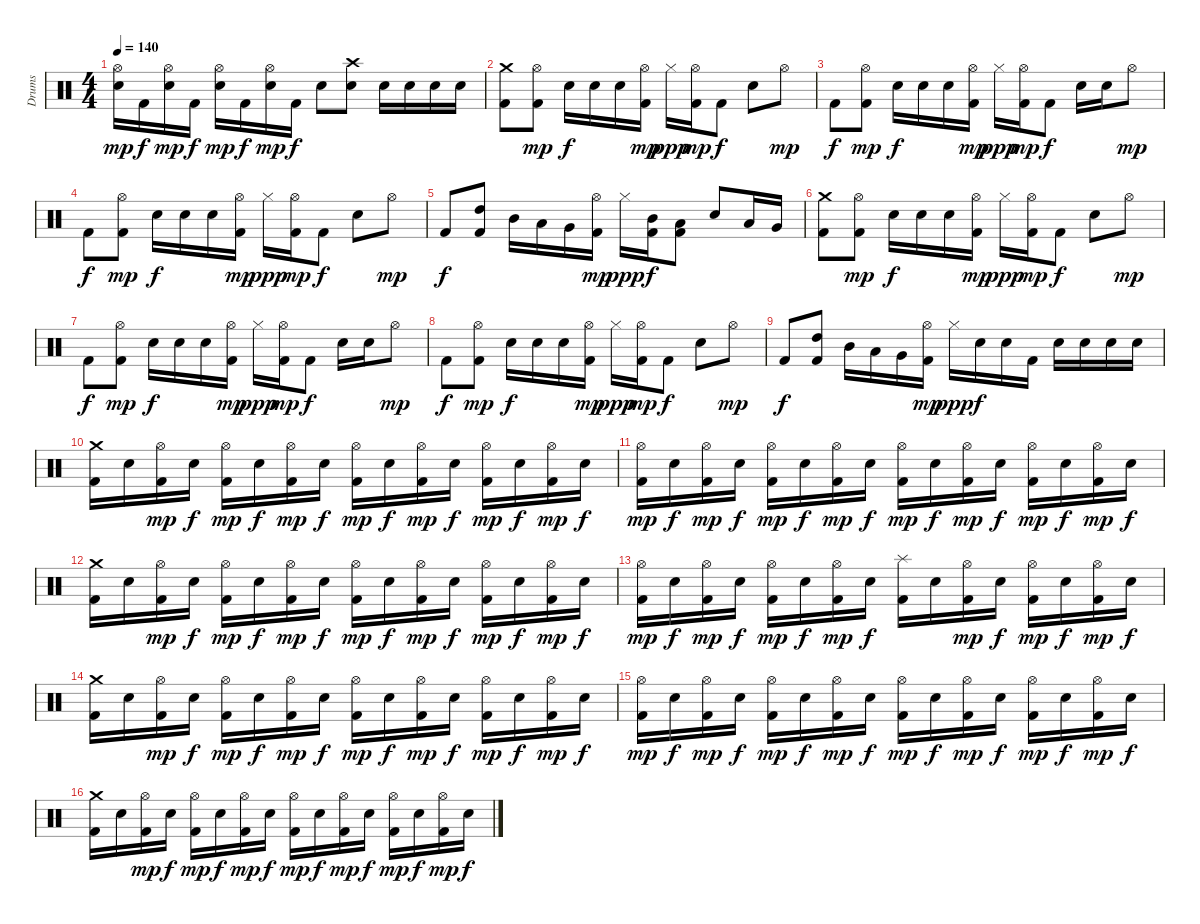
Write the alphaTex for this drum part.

\track ("Drums" "Drums") {instrument percussion}
\staff {score}
\articulation defaults
\ts (4 4)
\tempo 140
\clef neutral
\ks c
("Hi-Hat (open)" "Snare (hit) 2").16{dy mp} "Kick (hit) 2".16{dy f} ("Hi-Hat (open)" "Snare (hit) 2").16{dy mp} "Kick (hit) 2".16{dy f} ("Hi-Hat (open)" "Snare (hit) 2").16{dy mp} "Kick (hit) 2".16{dy f} ("Hi-Hat (open)" "Snare (hit) 2").16{dy mp} "Kick (hit) 2".16{dy f} "Snare (hit) 2".8 ("Crash high (hit)" "Snare (hit) 2").8 "Snare (hit) 2".16 "Snare (hit) 2".16 "Snare (hit) 2".16 "Snare (hit) 2".16 |
("Crash medium (hit)" "Kick (hit) 2").8 ("Hi-Hat (open)" "Kick (hit) 2").8{dy mp} "Snare (hit) 2".16{dy f} "Snare (hit) 2".16 "Snare (hit) 2".16 ("Hi-Hat (open)" "Kick (hit) 2").16{dy mp} "Hi-Hat (closed)".16{dy ppp} ("Hi-Hat (open)" "Kick (hit) 2").16{dy mp} "Kick (hit) 2".8{dy f} "Snare (hit) 2".8 "Hi-Hat (open)".8{dy mp} |
"Kick (hit) 2".8{dy f} ("Hi-Hat (open)" "Kick (hit) 2").8{dy mp} "Snare (hit) 2".16{dy f} "Snare (hit) 2".16 "Snare (hit) 2".16 ("Hi-Hat (open)" "Kick (hit) 2").16{dy mp} "Hi-Hat (closed)".16{dy ppp} ("Hi-Hat (open)" "Kick (hit) 2").16{dy mp} "Kick (hit) 2".8{dy f} "Snare (hit) 2".16 "Snare (hit) 2".16 "Hi-Hat (open)".8{dy mp} |
"Kick (hit) 2".8{dy f} ("Hi-Hat (open)" "Kick (hit) 2").8{dy mp} "Snare (hit) 2".16{dy f} "Snare (hit) 2".16 "Snare (hit) 2".16 ("Hi-Hat (open)" "Kick (hit) 2").16{dy mp} "Hi-Hat (closed)".16{dy ppp} ("Hi-Hat (open)" "Kick (hit) 2").16{dy mp} "Kick (hit) 2".8{dy f} "Snare (hit) 2".8 "Hi-Hat (open)".8{dy mp} |
"Kick (hit) 2".8{dy f} ("High Tom (hit)" "Kick (hit) 2").8 "Mid Tom (hit)".16 "Low Tom (hit)".16 "Very Low Tom (hit)".16 ("Hi-Hat (open)" "Kick (hit) 2").16{dy mp} "Hi-Hat (closed)".16{dy ppp} ("Mid Tom (hit)" "Kick (hit) 2").16{dy f} ("Low Tom (hit)" "Kick (hit) 2").8 "Snare (hit) 2".8 "Low Tom (hit)".16 "Very Low Tom (hit)".16 |
("Crash medium (hit)" "Kick (hit) 2").8 ("Hi-Hat (open)" "Kick (hit) 2").8{dy mp} "Snare (hit) 2".16{dy f} "Snare (hit) 2".16 "Snare (hit) 2".16 ("Hi-Hat (open)" "Kick (hit) 2").16{dy mp} "Hi-Hat (closed)".16{dy ppp} ("Hi-Hat (open)" "Kick (hit) 2").16{dy mp} "Kick (hit) 2".8{dy f} "Snare (hit) 2".8 "Hi-Hat (open)".8{dy mp} |
"Kick (hit) 2".8{dy f} ("Hi-Hat (open)" "Kick (hit) 2").8{dy mp} "Snare (hit) 2".16{dy f} "Snare (hit) 2".16 "Snare (hit) 2".16 ("Hi-Hat (open)" "Kick (hit) 2").16{dy mp} "Hi-Hat (closed)".16{dy ppp} ("Hi-Hat (open)" "Kick (hit) 2").16{dy mp} "Kick (hit) 2".8{dy f} "Snare (hit) 2".16 "Snare (hit) 2".16 "Hi-Hat (open)".8{dy mp} |
"Kick (hit) 2".8{dy f} ("Hi-Hat (open)" "Kick (hit) 2").8{dy mp} "Snare (hit) 2".16{dy f} "Snare (hit) 2".16 "Snare (hit) 2".16 ("Hi-Hat (open)" "Kick (hit) 2").16{dy mp} "Hi-Hat (closed)".16{dy ppp} ("Hi-Hat (open)" "Kick (hit) 2").16{dy mp} "Kick (hit) 2".8{dy f} "Snare (hit) 2".8 "Hi-Hat (open)".8{dy mp} |
"Kick (hit) 2".8{dy f} ("High Tom (hit)" "Kick (hit) 2").8 "Mid Tom (hit)".16 "Low Tom (hit)".16 "Very Low Tom (hit)".16 ("Hi-Hat (open)" "Kick (hit) 2").16{dy mp} "Hi-Hat (closed)".16{dy ppp} "Snare (hit) 2".16{dy f} "Snare (hit) 2".16 "Kick (hit) 2".16 "Snare (hit) 2".16 "Snare (hit) 2".16 "Snare (hit) 2".16 "Snare (hit) 2".16 |
("Crash medium (hit)" "Kick (hit) 2").16 "Snare (hit) 2".16 ("Hi-Hat (open)" "Kick (hit) 2").16{dy mp} "Snare (hit) 2".16{dy f} ("Hi-Hat (open)" "Kick (hit) 2").16{dy mp} "Snare (hit) 2".16{dy f} ("Hi-Hat (open)" "Kick (hit) 2").16{dy mp} "Snare (hit) 2".16{dy f} ("Hi-Hat (open)" "Kick (hit) 2").16{dy mp} "Snare (hit) 2".16{dy f} ("Hi-Hat (open)" "Kick (hit) 2").16{dy mp} "Snare (hit) 2".16{dy f} ("Hi-Hat (open)" "Kick (hit) 2").16{dy mp} "Snare (hit) 2".16{dy f} ("Hi-Hat (open)" "Kick (hit) 2").16{dy mp} "Snare (hit) 2".16{dy f} |
("Hi-Hat (open)" "Kick (hit) 2").16{dy mp} "Snare (hit) 2".16{dy f} ("Hi-Hat (open)" "Kick (hit) 2").16{dy mp} "Snare (hit) 2".16{dy f} ("Hi-Hat (open)" "Kick (hit) 2").16{dy mp} "Snare (hit) 2".16{dy f} ("Hi-Hat (open)" "Kick (hit) 2").16{dy mp} "Snare (hit) 2".16{dy f} ("Hi-Hat (open)" "Kick (hit) 2").16{dy mp} "Snare (hit) 2".16{dy f} ("Hi-Hat (open)" "Kick (hit) 2").16{dy mp} "Snare (hit) 2".16{dy f} ("Hi-Hat (open)" "Kick (hit) 2").16{dy mp} "Snare (hit) 2".16{dy f} ("Hi-Hat (open)" "Kick (hit) 2").16{dy mp} "Snare (hit) 2".16{dy f} |
("Crash medium (hit)" "Kick (hit) 2").16 "Snare (hit) 2".16 ("Hi-Hat (open)" "Kick (hit) 2").16{dy mp} "Snare (hit) 2".16{dy f} ("Hi-Hat (open)" "Kick (hit) 2").16{dy mp} "Snare (hit) 2".16{dy f} ("Hi-Hat (open)" "Kick (hit) 2").16{dy mp} "Snare (hit) 2".16{dy f} ("Hi-Hat (open)" "Kick (hit) 2").16{dy mp} "Snare (hit) 2".16{dy f} ("Hi-Hat (open)" "Kick (hit) 2").16{dy mp} "Snare (hit) 2".16{dy f} ("Hi-Hat (open)" "Kick (hit) 2").16{dy mp} "Snare (hit) 2".16{dy f} ("Hi-Hat (open)" "Kick (hit) 2").16{dy mp} "Snare (hit) 2".16{dy f} |
("Hi-Hat (open)" "Kick (hit) 2").16{dy mp} "Snare (hit) 2".16{dy f} ("Hi-Hat (open)" "Kick (hit) 2").16{dy mp} "Snare (hit) 2".16{dy f} ("Hi-Hat (open)" "Kick (hit) 2").16{dy mp} "Snare (hit) 2".16{dy f} ("Hi-Hat (open)" "Kick (hit) 2").16{dy mp} "Snare (hit) 2".16{dy f} ("Splash (hit)" "Kick (hit) 2").16 "Snare (hit) 2".16 ("Hi-Hat (open)" "Kick (hit) 2").16{dy mp} "Snare (hit) 2".16{dy f} ("Hi-Hat (open)" "Kick (hit) 2").16{dy mp} "Snare (hit) 2".16{dy f} ("Hi-Hat (open)" "Kick (hit) 2").16{dy mp} "Snare (hit) 2".16{dy f} |
("Crash medium (hit)" "Kick (hit) 2").16 "Snare (hit) 2".16 ("Hi-Hat (open)" "Kick (hit) 2").16{dy mp} "Snare (hit) 2".16{dy f} ("Hi-Hat (open)" "Kick (hit) 2").16{dy mp} "Snare (hit) 2".16{dy f} ("Hi-Hat (open)" "Kick (hit) 2").16{dy mp} "Snare (hit) 2".16{dy f} ("Hi-Hat (open)" "Kick (hit) 2").16{dy mp} "Snare (hit) 2".16{dy f} ("Hi-Hat (open)" "Kick (hit) 2").16{dy mp} "Snare (hit) 2".16{dy f} ("Hi-Hat (open)" "Kick (hit) 2").16{dy mp} "Snare (hit) 2".16{dy f} ("Hi-Hat (open)" "Kick (hit) 2").16{dy mp} "Snare (hit) 2".16{dy f} |
("Hi-Hat (open)" "Kick (hit) 2").16{dy mp} "Snare (hit) 2".16{dy f} ("Hi-Hat (open)" "Kick (hit) 2").16{dy mp} "Snare (hit) 2".16{dy f} ("Hi-Hat (open)" "Kick (hit) 2").16{dy mp} "Snare (hit) 2".16{dy f} ("Hi-Hat (open)" "Kick (hit) 2").16{dy mp} "Snare (hit) 2".16{dy f} ("Hi-Hat (open)" "Kick (hit) 2").16{dy mp} "Snare (hit) 2".16{dy f} ("Hi-Hat (open)" "Kick (hit) 2").16{dy mp} "Snare (hit) 2".16{dy f} ("Hi-Hat (open)" "Kick (hit) 2").16{dy mp} "Snare (hit) 2".16{dy f} ("Hi-Hat (open)" "Kick (hit) 2").16{dy mp} "Snare (hit) 2".16{dy f} |
("Crash medium (hit)" "Kick (hit) 2").16 "Snare (hit) 2".16 ("Hi-Hat (open)" "Kick (hit) 2").16{dy mp} "Snare (hit) 2".16{dy f} ("Hi-Hat (open)" "Kick (hit) 2").16{dy mp} "Snare (hit) 2".16{dy f} ("Hi-Hat (open)" "Kick (hit) 2").16{dy mp} "Snare (hit) 2".16{dy f} ("Hi-Hat (open)" "Kick (hit) 2").16{dy mp} "Snare (hit) 2".16{dy f} ("Hi-Hat (open)" "Kick (hit) 2").16{dy mp} "Snare (hit) 2".16{dy f} ("Hi-Hat (open)" "Kick (hit) 2").16{dy mp} "Snare (hit) 2".16{dy f} ("Hi-Hat (open)" "Kick (hit) 2").16{dy mp} "Snare (hit) 2".16{dy f}
